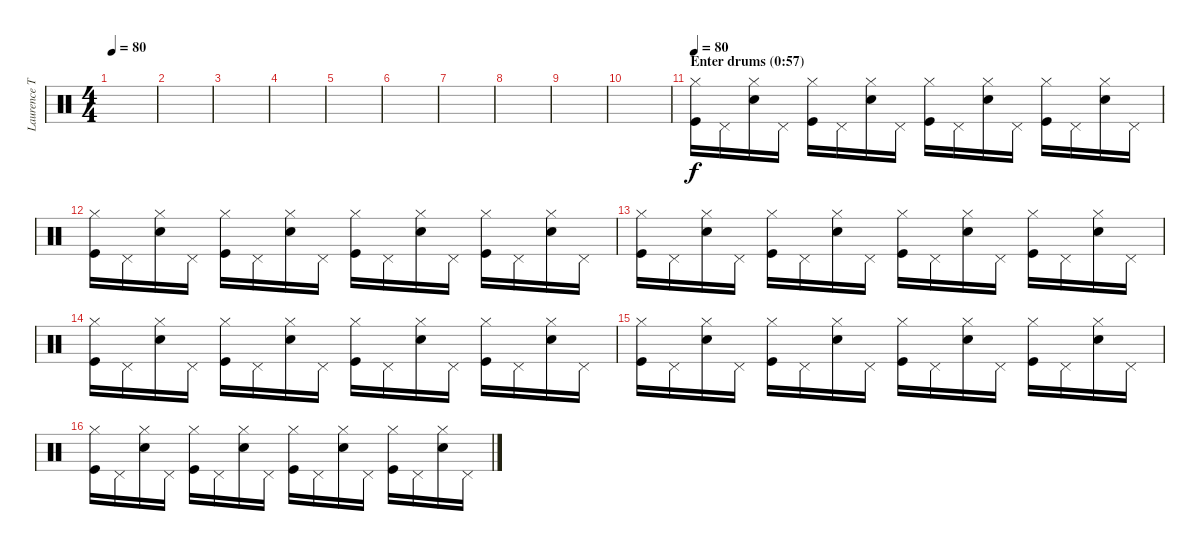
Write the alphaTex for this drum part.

\track ("Laurence Tolhurst (drums)" "Laurence T") {instrument percussion}
\staff {score}
\articulation defaults
\ts (4 4)
\tempo 80
\clef neutral
\ks c
|
|
|
|
|
|
|
|
|
|
\section ("" "Enter drums (0:57)")
\tempo 80
("Kick (hit)" "Hi-Hat (closed)").16 "Pedal Hi-Hat (hit)".16 ("Snare (hit) 2" "Hi-Hat (closed)").16 "Pedal Hi-Hat (hit)".16 ("Kick (hit)" "Hi-Hat (closed)").16 "Pedal Hi-Hat (hit)".16 ("Snare (hit) 2" "Hi-Hat (closed)").16 "Pedal Hi-Hat (hit)".16 ("Kick (hit)" "Hi-Hat (closed)").16 "Pedal Hi-Hat (hit)".16 ("Snare (hit) 2" "Hi-Hat (closed)").16 "Pedal Hi-Hat (hit)".16 ("Kick (hit)" "Hi-Hat (closed)").16 "Pedal Hi-Hat (hit)".16 ("Snare (hit) 2" "Hi-Hat (closed)").16 "Pedal Hi-Hat (hit)".16 |
("Kick (hit)" "Hi-Hat (closed)").16 "Pedal Hi-Hat (hit)".16 ("Snare (hit) 2" "Hi-Hat (closed)").16 "Pedal Hi-Hat (hit)".16 ("Kick (hit)" "Hi-Hat (closed)").16 "Pedal Hi-Hat (hit)".16 ("Snare (hit) 2" "Hi-Hat (closed)").16 "Pedal Hi-Hat (hit)".16 ("Kick (hit)" "Hi-Hat (closed)").16 "Pedal Hi-Hat (hit)".16 ("Snare (hit) 2" "Hi-Hat (closed)").16 "Pedal Hi-Hat (hit)".16 ("Kick (hit)" "Hi-Hat (closed)").16 "Pedal Hi-Hat (hit)".16 ("Snare (hit) 2" "Hi-Hat (closed)").16 "Pedal Hi-Hat (hit)".16 |
("Kick (hit)" "Hi-Hat (closed)").16 "Pedal Hi-Hat (hit)".16 ("Snare (hit) 2" "Hi-Hat (closed)").16 "Pedal Hi-Hat (hit)".16 ("Kick (hit)" "Hi-Hat (closed)").16 "Pedal Hi-Hat (hit)".16 ("Snare (hit) 2" "Hi-Hat (closed)").16 "Pedal Hi-Hat (hit)".16 ("Kick (hit)" "Hi-Hat (closed)").16 "Pedal Hi-Hat (hit)".16 ("Snare (hit) 2" "Hi-Hat (closed)").16 "Pedal Hi-Hat (hit)".16 ("Kick (hit)" "Hi-Hat (closed)").16 "Pedal Hi-Hat (hit)".16 ("Snare (hit) 2" "Hi-Hat (closed)").16 "Pedal Hi-Hat (hit)".16 |
("Kick (hit)" "Hi-Hat (closed)").16 "Pedal Hi-Hat (hit)".16 ("Snare (hit) 2" "Hi-Hat (closed)").16 "Pedal Hi-Hat (hit)".16 ("Kick (hit)" "Hi-Hat (closed)").16 "Pedal Hi-Hat (hit)".16 ("Snare (hit) 2" "Hi-Hat (closed)").16 "Pedal Hi-Hat (hit)".16 ("Kick (hit)" "Hi-Hat (closed)").16 "Pedal Hi-Hat (hit)".16 ("Snare (hit) 2" "Hi-Hat (closed)").16 "Pedal Hi-Hat (hit)".16 ("Kick (hit)" "Hi-Hat (closed)").16 "Pedal Hi-Hat (hit)".16 ("Snare (hit) 2" "Hi-Hat (closed)").16 "Pedal Hi-Hat (hit)".16 |
("Kick (hit)" "Hi-Hat (closed)").16 "Pedal Hi-Hat (hit)".16 ("Snare (hit) 2" "Hi-Hat (closed)").16 "Pedal Hi-Hat (hit)".16 ("Kick (hit)" "Hi-Hat (closed)").16 "Pedal Hi-Hat (hit)".16 ("Snare (hit) 2" "Hi-Hat (closed)").16 "Pedal Hi-Hat (hit)".16 ("Kick (hit)" "Hi-Hat (closed)").16 "Pedal Hi-Hat (hit)".16 ("Snare (hit) 2" "Hi-Hat (closed)").16 "Pedal Hi-Hat (hit)".16 ("Kick (hit)" "Hi-Hat (closed)").16 "Pedal Hi-Hat (hit)".16 ("Snare (hit) 2" "Hi-Hat (closed)").16 "Pedal Hi-Hat (hit)".16 |
("Kick (hit)" "Hi-Hat (closed)").16 "Pedal Hi-Hat (hit)".16 ("Snare (hit) 2" "Hi-Hat (closed)").16 "Pedal Hi-Hat (hit)".16 ("Kick (hit)" "Hi-Hat (closed)").16 "Pedal Hi-Hat (hit)".16 ("Snare (hit) 2" "Hi-Hat (closed)").16 "Pedal Hi-Hat (hit)".16 ("Kick (hit)" "Hi-Hat (closed)").16 "Pedal Hi-Hat (hit)".16 ("Snare (hit) 2" "Hi-Hat (closed)").16 "Pedal Hi-Hat (hit)".16 ("Kick (hit)" "Hi-Hat (closed)").16 "Pedal Hi-Hat (hit)".16 ("Snare (hit) 2" "Hi-Hat (closed)").16 "Pedal Hi-Hat (hit)".16
